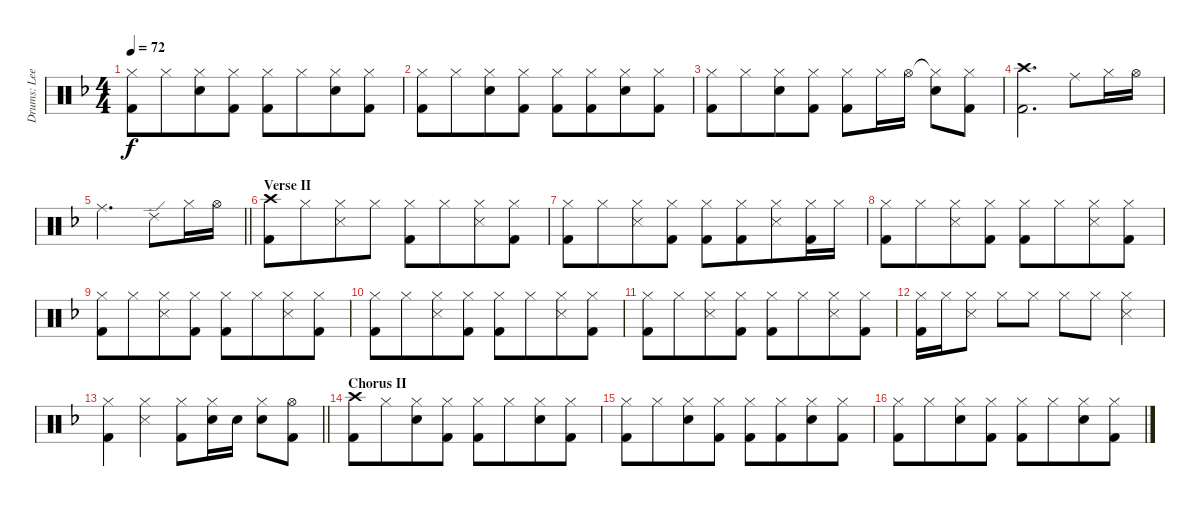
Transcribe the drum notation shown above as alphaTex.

\track ("Drums: Lee" "Drums: Lee") {instrument percussion}
\staff {score}
\articulation defaults
\ts (4 4)
\tempo 72
\clef neutral
\ks f
("Hi-Hat (closed)" "Kick (hit) 2").8{dy f} "Hi-Hat (closed)".8{beam merge} ("Hi-Hat (closed)" "Snare (hit) 2").8 ("Hi-Hat (closed)" "Kick (hit) 2").8 ("Hi-Hat (closed)" "Kick (hit) 2").8 "Hi-Hat (closed)".8{beam merge} ("Hi-Hat (closed)" "Snare (hit) 2").8 ("Hi-Hat (closed)" "Kick (hit) 2").8 |
("Hi-Hat (closed)" "Kick (hit) 2").8 "Hi-Hat (closed)".8{beam merge} ("Hi-Hat (closed)" "Snare (hit) 2").8 ("Hi-Hat (closed)" "Kick (hit) 2").8 ("Hi-Hat (closed)" "Kick (hit) 2").8 ("Hi-Hat (closed)" "Kick (hit) 2").8{beam merge} ("Hi-Hat (closed)" "Snare (hit) 2").8 ("Hi-Hat (closed)" "Kick (hit) 2").8 |
("Hi-Hat (closed)" "Kick (hit) 2").8 "Hi-Hat (closed)".8{beam merge} ("Hi-Hat (closed)" "Snare (hit) 2").8 ("Hi-Hat (closed)" "Kick (hit) 2").8 ("Hi-Hat (closed)" "Kick (hit) 2").8 "Hi-Hat (closed)".16 "Hi-Hat (open)".16 ("Hi-Hat (closed)"{t} "Snare (hit) 2").8 ("Hi-Hat (closed)" "Kick (hit) 2").8 |
("Crash high (hit)" "Kick (hit) 2").2{d} "Ride (middle)".8 "Hi-Hat (closed)".16 "Hi-Hat (open)".16 |
\barLineRight lightlight "Ride (middle)".2{d} "Ride (edge) 2".8 "Hi-Hat (closed)".16 "Hi-Hat (open)".16
|
\section ("" "Verse II")
("Crash high (hit)" "Kick (hit) 2").8 "Hi-Hat (closed)".8{beam merge} ("Hi-Hat (closed)" "Snare (side stick) 3").8 "Hi-Hat (closed)".8 ("Hi-Hat (closed)" "Kick (hit) 2").8 "Hi-Hat (closed)".8{beam merge} ("Hi-Hat (closed)" "Snare (side stick) 3").8 ("Hi-Hat (closed)" "Kick (hit) 2").8 |
("Hi-Hat (closed)" "Kick (hit) 2").8 "Hi-Hat (closed)".8{beam merge} ("Hi-Hat (closed)" "Snare (side stick) 3").8 ("Hi-Hat (closed)" "Kick (hit) 2").8 ("Hi-Hat (closed)" "Kick (hit) 2").8 ("Hi-Hat (closed)" "Kick (hit) 2").8{beam merge} ("Hi-Hat (closed)" "Snare (side stick) 3").8 ("Hi-Hat (closed)" "Kick (hit) 2").16 "Hi-Hat (closed)".16 |
("Hi-Hat (closed)" "Kick (hit) 2").8 "Hi-Hat (closed)".8{beam merge} ("Hi-Hat (closed)" "Snare (side stick) 3").8 ("Hi-Hat (closed)" "Kick (hit) 2").8 ("Hi-Hat (closed)" "Kick (hit) 2").8 "Hi-Hat (closed)".8{beam merge} ("Hi-Hat (closed)" "Snare (side stick) 3").8 ("Hi-Hat (closed)" "Kick (hit) 2").8 |
("Hi-Hat (closed)" "Kick (hit) 2").8 "Hi-Hat (closed)".8{beam merge} ("Hi-Hat (closed)" "Snare (side stick) 3").8 ("Hi-Hat (closed)" "Kick (hit) 2").8 ("Hi-Hat (closed)" "Kick (hit) 2").8 "Hi-Hat (closed)".8{beam merge} ("Hi-Hat (closed)" "Snare (side stick) 3").8 ("Hi-Hat (closed)" "Kick (hit) 2").8 |
("Hi-Hat (closed)" "Kick (hit) 2").8 "Hi-Hat (closed)".8{beam merge} ("Hi-Hat (closed)" "Snare (side stick) 3").8 ("Hi-Hat (closed)" "Kick (hit) 2").8 ("Hi-Hat (closed)" "Kick (hit) 2").8 "Hi-Hat (closed)".8{beam merge} ("Hi-Hat (closed)" "Snare (side stick) 3").8 ("Hi-Hat (closed)" "Kick (hit) 2").8 |
("Hi-Hat (closed)" "Kick (hit) 2").8 "Hi-Hat (closed)".8{beam merge} ("Hi-Hat (closed)" "Snare (side stick) 3").8 ("Hi-Hat (closed)" "Kick (hit) 2").8 ("Hi-Hat (closed)" "Kick (hit) 2").8 "Hi-Hat (closed)".8{beam merge} ("Hi-Hat (closed)" "Snare (side stick) 3").8 ("Hi-Hat (closed)" "Kick (hit) 2").8 |
("Hi-Hat (closed)" "Kick (hit) 2").16 "Hi-Hat (closed)".16{beam merge} ("Hi-Hat (closed)" "Snare (side stick) 3").8 "Hi-Hat (closed)".8 "Hi-Hat (closed)".8 "Hi-Hat (closed)".8 "Hi-Hat (closed)".8{beam merge} ("Hi-Hat (closed)" "Snare (side stick) 3").4 |
\barLineRight lightlight
("Hi-Hat (closed)" "Kick (hit) 2").4{beam merge} ("Hi-Hat (closed)" "Snare (side stick) 3").4 ("Hi-Hat (closed)" "Kick (hit) 2").8 ("Hi-Hat (closed)" "Snare (hit) 2").16 "Snare (hit) 2".16 ("Hi-Hat (closed)" "Snare (hit) 2").8 ("Hi-Hat (open)" "Kick (hit) 2").8 |
\section ("" "Chorus II")
("Crash high (hit)" "Kick (hit) 2").8 "Hi-Hat (closed)".8{beam merge} ("Hi-Hat (closed)" "Snare (hit) 2").8 ("Hi-Hat (closed)" "Kick (hit) 2").8 ("Hi-Hat (closed)" "Kick (hit) 2").8 "Hi-Hat (closed)".8{beam merge} ("Hi-Hat (closed)" "Snare (hit) 2").8 ("Hi-Hat (closed)" "Kick (hit) 2").8 |
("Hi-Hat (closed)" "Kick (hit) 2").8 "Hi-Hat (closed)".8{beam merge} ("Hi-Hat (closed)" "Snare (hit) 2").8 ("Hi-Hat (closed)" "Kick (hit) 2").8 ("Hi-Hat (closed)" "Kick (hit) 2").8 ("Hi-Hat (closed)" "Kick (hit) 2").8{beam merge} ("Hi-Hat (closed)" "Snare (hit) 2").8 ("Hi-Hat (closed)" "Kick (hit) 2").8 |
("Hi-Hat (closed)" "Kick (hit) 2").8 "Hi-Hat (closed)".8{beam merge} ("Hi-Hat (closed)" "Snare (hit) 2").8 ("Hi-Hat (closed)" "Kick (hit) 2").8 ("Hi-Hat (closed)" "Kick (hit) 2").8 "Hi-Hat (closed)".8{beam merge} ("Hi-Hat (closed)" "Snare (hit) 2").8 ("Hi-Hat (closed)" "Kick (hit) 2").8
